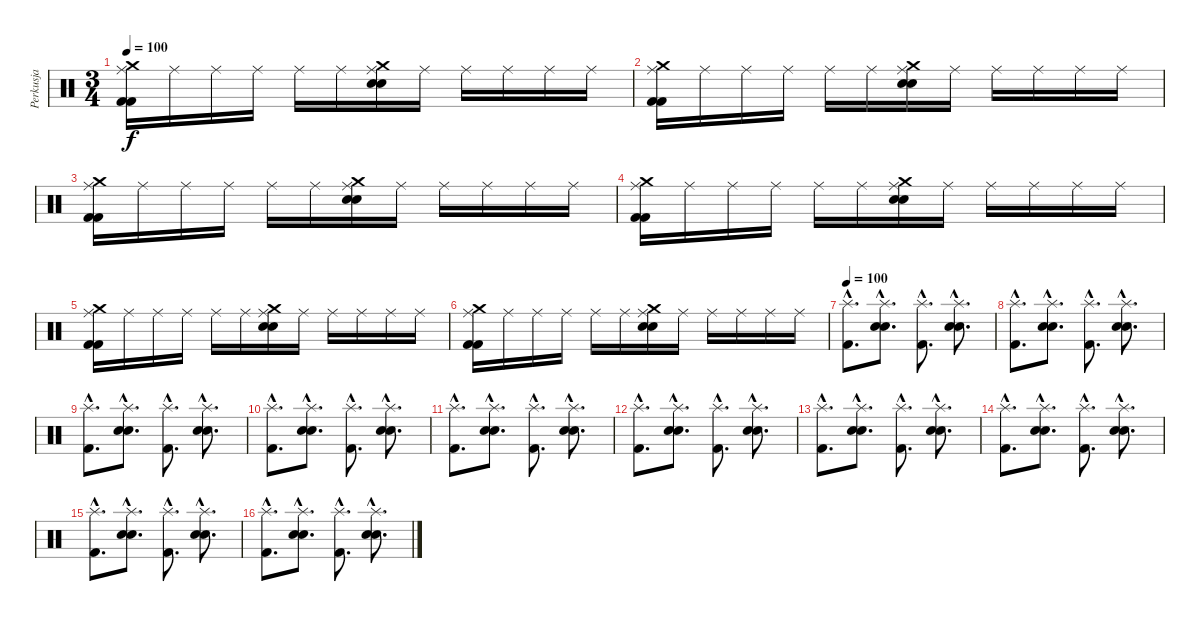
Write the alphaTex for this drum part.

\track ("Perkusja" "Perkusja") {instrument percussion}
\staff {score}
\articulation defaults
\ts (3 4)
\tempo 100
\clef neutral
\ks c
("Crash medium (hit)" "Ride (middle)" "Kick (hit) 2" "Kick (hit) 2").16{dy f} "Ride (middle)".16 "Ride (middle)".16 "Ride (middle)".16 "Ride (middle)".16 "Ride (middle)".16 ("Crash medium (hit)" "Ride (middle)" "Snare (hit) 2" "Snare (hit) 2").16 "Ride (middle)".16 "Ride (middle)".16 "Ride (middle)".16 "Ride (middle)".16 "Ride (middle)".16 |
("Crash medium (hit)" "Ride (middle)" "Kick (hit) 2" "Kick (hit) 2").16 "Ride (middle)".16 "Ride (middle)".16 "Ride (middle)".16 "Ride (middle)".16 "Ride (middle)".16 ("Crash medium (hit)" "Ride (middle)" "Snare (hit) 2" "Snare (hit) 2").16 "Ride (middle)".16 "Ride (middle)".16 "Ride (middle)".16 "Ride (middle)".16 "Ride (middle)".16 |
("Crash medium (hit)" "Ride (middle)" "Kick (hit) 2" "Kick (hit) 2").16 "Ride (middle)".16 "Ride (middle)".16 "Ride (middle)".16 "Ride (middle)".16 "Ride (middle)".16 ("Crash medium (hit)" "Ride (middle)" "Snare (hit) 2" "Snare (hit) 2").16 "Ride (middle)".16 "Ride (middle)".16 "Ride (middle)".16 "Ride (middle)".16 "Ride (middle)".16 |
("Crash medium (hit)" "Ride (middle)" "Kick (hit) 2" "Kick (hit) 2").16 "Ride (middle)".16 "Ride (middle)".16 "Ride (middle)".16 "Ride (middle)".16 "Ride (middle)".16 ("Crash medium (hit)" "Ride (middle)" "Snare (hit) 2" "Snare (hit) 2").16 "Ride (middle)".16 "Ride (middle)".16 "Ride (middle)".16 "Ride (middle)".16 "Ride (middle)".16 |
("Crash medium (hit)" "Ride (middle)" "Kick (hit) 2" "Kick (hit) 2").16 "Ride (middle)".16 "Ride (middle)".16 "Ride (middle)".16 "Ride (middle)".16 "Ride (middle)".16 ("Crash medium (hit)" "Ride (middle)" "Snare (hit) 2" "Snare (hit) 2").16 "Ride (middle)".16 "Ride (middle)".16 "Ride (middle)".16 "Ride (middle)".16 "Ride (middle)".16 |
("Crash medium (hit)" "Ride (middle)" "Kick (hit) 2" "Kick (hit) 2").16 "Ride (middle)".16 "Ride (middle)".16 "Ride (middle)".16 "Ride (middle)".16 "Ride (middle)".16 ("Crash medium (hit)" "Ride (middle)" "Snare (hit) 2" "Snare (hit) 2").16 "Ride (middle)".16 "Ride (middle)".16 "Ride (middle)".16 "Ride (middle)".16 "Ride (middle)".16 |
\tempo 100
("Splash (hit)"{hac} "Kick (hit) 2"{hac}).8{d} ("Splash (hit)"{hac} "Snare (hit) 2"{hac} "Snare (hit) 2"{hac}).8{d} ("Splash (hit)"{hac} "Kick (hit) 2"{hac}).8{d} ("Splash (hit)"{hac} "Snare (hit) 2"{hac} "Snare (hit) 2"{hac}).8{d} |
("Splash (hit)"{hac} "Kick (hit) 2"{hac}).8{d} ("Splash (hit)"{hac} "Snare (hit) 2"{hac} "Snare (hit) 2"{hac}).8{d} ("Splash (hit)"{hac} "Kick (hit) 2"{hac}).8{d} ("Splash (hit)"{hac} "Snare (hit) 2"{hac} "Snare (hit) 2"{hac}).8{d} |
("Splash (hit)"{hac} "Kick (hit) 2"{hac}).8{d} ("Splash (hit)"{hac} "Snare (hit) 2"{hac} "Snare (hit) 2"{hac}).8{d} ("Splash (hit)"{hac} "Kick (hit) 2"{hac}).8{d} ("Splash (hit)"{hac} "Snare (hit) 2"{hac} "Snare (hit) 2"{hac}).8{d} |
("Splash (hit)"{hac} "Kick (hit) 2"{hac}).8{d} ("Splash (hit)"{hac} "Snare (hit) 2"{hac} "Snare (hit) 2"{hac}).8{d} ("Splash (hit)"{hac} "Kick (hit) 2"{hac}).8{d} ("Splash (hit)"{hac} "Snare (hit) 2"{hac} "Snare (hit) 2"{hac}).8{d} |
("Splash (hit)"{hac} "Kick (hit) 2"{hac}).8{d} ("Splash (hit)"{hac} "Snare (hit) 2"{hac} "Snare (hit) 2"{hac}).8{d} ("Splash (hit)"{hac} "Kick (hit) 2"{hac}).8{d} ("Splash (hit)"{hac} "Snare (hit) 2"{hac} "Snare (hit) 2"{hac}).8{d} |
("Splash (hit)"{hac} "Kick (hit) 2"{hac}).8{d} ("Splash (hit)"{hac} "Snare (hit) 2"{hac} "Snare (hit) 2"{hac}).8{d} ("Splash (hit)"{hac} "Kick (hit) 2"{hac}).8{d} ("Splash (hit)"{hac} "Snare (hit) 2"{hac} "Snare (hit) 2"{hac}).8{d} |
("Splash (hit)"{hac} "Kick (hit) 2"{hac}).8{d} ("Splash (hit)"{hac} "Snare (hit) 2"{hac} "Snare (hit) 2"{hac}).8{d} ("Splash (hit)"{hac} "Kick (hit) 2"{hac}).8{d} ("Splash (hit)"{hac} "Snare (hit) 2"{hac} "Snare (hit) 2"{hac}).8{d} |
("Splash (hit)"{hac} "Kick (hit) 2"{hac}).8{d} ("Splash (hit)"{hac} "Snare (hit) 2"{hac} "Snare (hit) 2"{hac}).8{d} ("Splash (hit)"{hac} "Kick (hit) 2"{hac}).8{d} ("Splash (hit)"{hac} "Snare (hit) 2"{hac} "Snare (hit) 2"{hac}).8{d} |
("Splash (hit)"{hac} "Kick (hit) 2"{hac}).8{d} ("Splash (hit)"{hac} "Snare (hit) 2"{hac} "Snare (hit) 2"{hac}).8{d} ("Splash (hit)"{hac} "Kick (hit) 2"{hac}).8{d} ("Splash (hit)"{hac} "Snare (hit) 2"{hac} "Snare (hit) 2"{hac}).8{d} |
("Splash (hit)"{hac} "Kick (hit) 2"{hac}).8{d} ("Splash (hit)"{hac} "Snare (hit) 2"{hac} "Snare (hit) 2"{hac}).8{d} ("Splash (hit)"{hac} "Kick (hit) 2"{hac}).8{d} ("Splash (hit)"{hac} "Snare (hit) 2"{hac} "Snare (hit) 2"{hac}).8{d}
